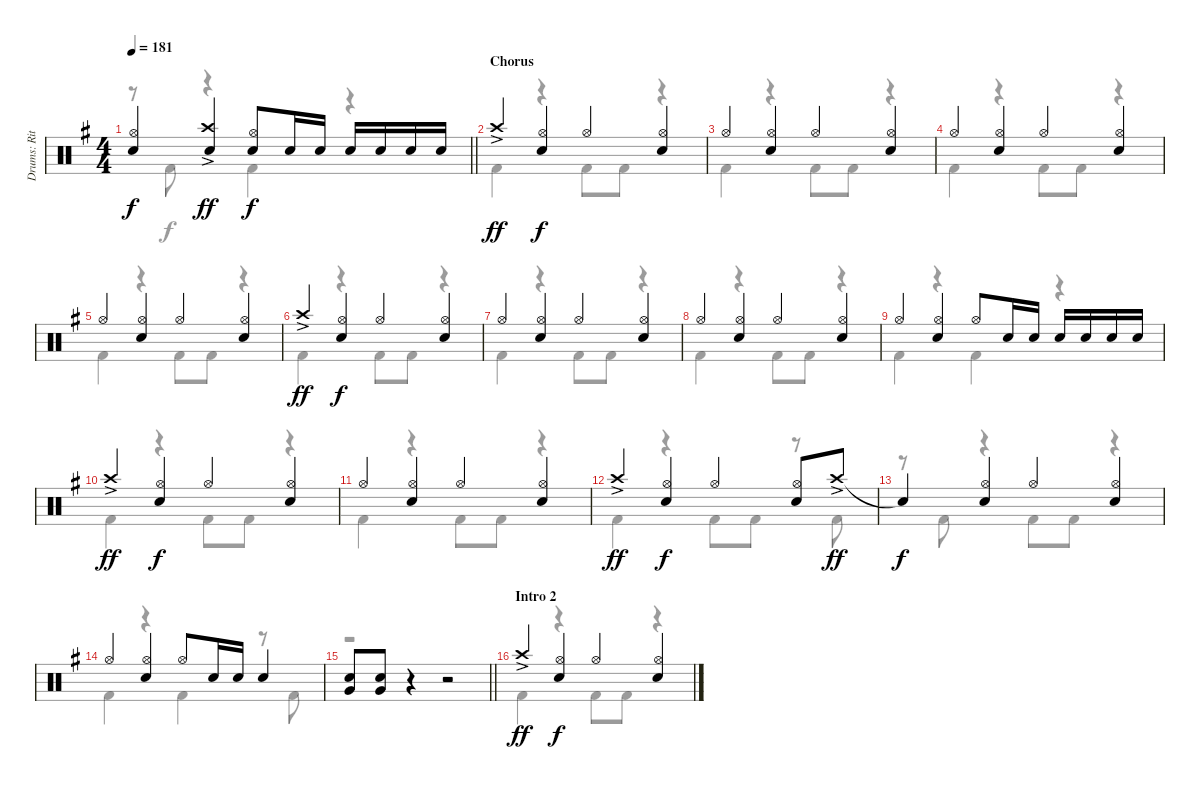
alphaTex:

\track ("Drums: Ritsu Tianaka" "Drums: Rit") {instrument percussion}
\staff {score}
\articulation defaults
\voice
\ts (4 4)
\tempo 181
\clef neutral
\barLineRight lightlight
\ks g
("Hi-Hat (open)" "Snare (hit) 2").4{dy f} ("Crash high (hit)"{ac} "Snare (hit) 2").4{dy ff} ("Hi-Hat (open)" "Snare (hit) 2").8{dy f} "Snare (hit) 2".16 "Snare (hit) 2".16 "Snare (hit) 2".16 "Snare (hit) 2".16 "Snare (hit) 2".16 "Snare (hit) 2".16 |
\section ("" "Chorus")
"Crash high (hit)"{ac}.4{dy ff} ("Hi-Hat (open)" "Snare (hit) 2").4{dy f} "Hi-Hat (open)".4 ("Hi-Hat (open)" "Snare (hit) 2").4 |
"Hi-Hat (open)".4 ("Hi-Hat (open)" "Snare (hit) 2").4 "Hi-Hat (open)".4 ("Hi-Hat (open)" "Snare (hit) 2").4 |
"Hi-Hat (open)".4 ("Hi-Hat (open)" "Snare (hit) 2").4 "Hi-Hat (open)".4 ("Hi-Hat (open)" "Snare (hit) 2").4 |
"Hi-Hat (open)".4 ("Hi-Hat (open)" "Snare (hit) 2").4 "Hi-Hat (open)".4 ("Hi-Hat (open)" "Snare (hit) 2").4 |
"Crash high (hit)"{ac}.4{dy ff} ("Hi-Hat (open)" "Snare (hit) 2").4{dy f} "Hi-Hat (open)".4 ("Hi-Hat (open)" "Snare (hit) 2").4 |
"Hi-Hat (open)".4 ("Hi-Hat (open)" "Snare (hit) 2").4 "Hi-Hat (open)".4 ("Hi-Hat (open)" "Snare (hit) 2").4 |
"Hi-Hat (open)".4 ("Hi-Hat (open)" "Snare (hit) 2").4 "Hi-Hat (open)".4 ("Hi-Hat (open)" "Snare (hit) 2").4 |
"Hi-Hat (open)".4 ("Hi-Hat (open)" "Snare (hit) 2").4 "Hi-Hat (open)".8 "Snare (hit) 2".16 "Snare (hit) 2".16 "Snare (hit) 2".16 "Snare (hit) 2".16 "Snare (hit) 2".16 "Snare (hit) 2".16 |
"Crash high (hit)"{ac}.4{dy ff} ("Hi-Hat (open)" "Snare (hit) 2").4{dy f} "Hi-Hat (open)".4 ("Hi-Hat (open)" "Snare (hit) 2").4 |
"Hi-Hat (open)".4 ("Hi-Hat (open)" "Snare (hit) 2").4 "Hi-Hat (open)".4 ("Hi-Hat (open)" "Snare (hit) 2").4 |
"Crash high (hit)"{ac}.4{dy ff} ("Hi-Hat (open)" "Snare (hit) 2").4{dy f} "Hi-Hat (open)".4 ("Hi-Hat (open)" "Snare (hit) 2").8 "Crash high (hit)"{ac}.8{dy ff} |
"Snare (hit)"{t}.4{dy f} ("Hi-Hat (open)" "Snare (hit) 2").4 "Hi-Hat (open)".4 ("Hi-Hat (open)" "Snare (hit) 2").4 |
"Hi-Hat (open)".4 ("Hi-Hat (open)" "Snare (hit) 2").4 "Hi-Hat (open)".8 "Snare (hit) 2".16 "Snare (hit) 2".16 "Snare (hit) 2".4 |
\barLineRight lightlight
("Snare (hit) 2" "Very Low Tom (hit)").8 ("Snare (hit) 2" "Very Low Tom (hit)").8 r.4 r.2 |
\section ("" "Intro 2")
"Crash high (hit)"{ac}.4{dy ff} ("Hi-Hat (open)" "Snare (hit) 2").4{dy f} "Hi-Hat (open)".4 ("Hi-Hat (open)" "Snare (hit) 2").4
\voice
\clef neutral
\ottava regular
\simile none
\barLineRight lightlight
\ks g
r.8{dy f} "Kick (hit) 2".8 r.4 "Kick (hit) 2".4 r.4 |
"Kick (hit) 2".4 r.4 "Kick (hit) 2".8 "Kick (hit) 2".8 r.4 |
"Kick (hit) 2".4 r.4 "Kick (hit) 2".8 "Kick (hit) 2".8 r.4 |
"Kick (hit) 2".4 r.4 "Kick (hit) 2".8 "Kick (hit) 2".8 r.4 |
"Kick (hit) 2".4 r.4 "Kick (hit) 2".8 "Kick (hit) 2".8 r.4 |
"Kick (hit) 2".4 r.4 "Kick (hit) 2".8 "Kick (hit) 2".8 r.4 |
"Kick (hit) 2".4 r.4 "Kick (hit) 2".8 "Kick (hit) 2".8 r.4 |
"Kick (hit) 2".4 r.4 "Kick (hit) 2".8 "Kick (hit) 2".8 r.4 |
"Kick (hit) 2".4 r.4 "Kick (hit) 2".4 r.4 |
"Kick (hit) 2".4 r.4 "Kick (hit) 2".8 "Kick (hit) 2".8 r.4 |
"Kick (hit) 2".4 r.4 "Kick (hit) 2".8 "Kick (hit) 2".8 r.4 |
"Kick (hit) 2".4 r.4 "Kick (hit) 2".8 "Kick (hit) 2".8 r.8 "Kick (hit) 2".8 |
r.8 "Kick (hit) 2".8 r.4 "Kick (hit) 2".8 "Kick (hit) 2".8 r.4 |
"Kick (hit) 2".4 r.4 "Kick (hit) 2".4 r.8 "Kick (hit) 2".8 |
\barLineRight lightlight
r.1 |
"Kick (hit) 2".4 r.4 "Kick (hit) 2".8 "Kick (hit) 2".8 r.4
